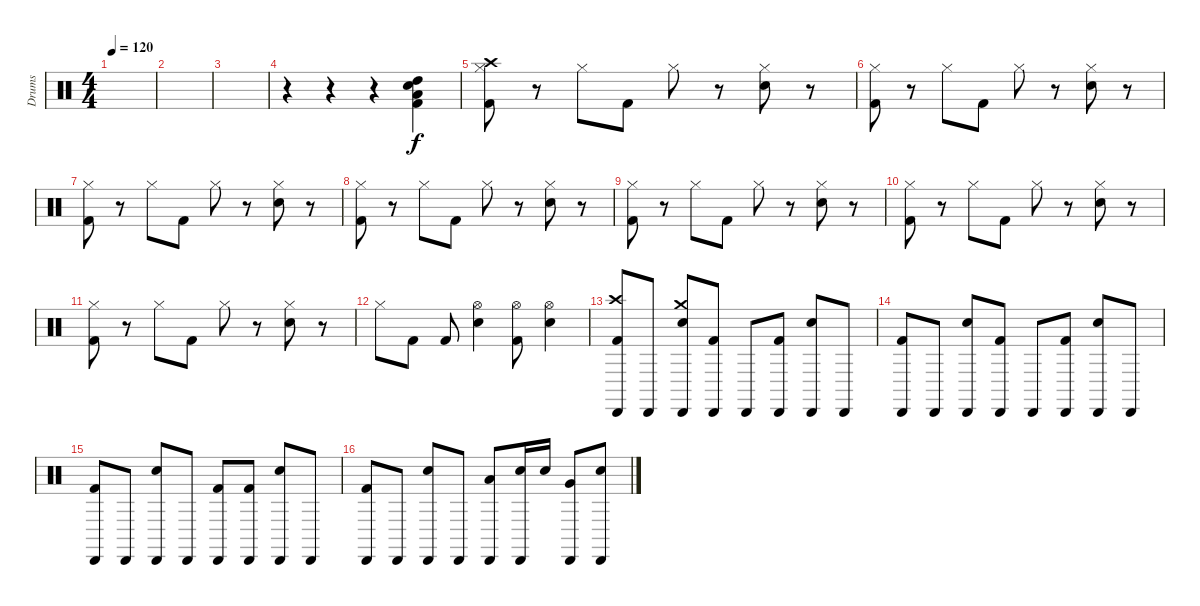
\track ("Drums" "Drums") {instrument percussion}
\staff {score}
\articulation defaults
\ts (4 4)
\tempo 120
\clef neutral
\ks c
|
|
|
r.4 r.4 r.4 ("High Tom (hit)" "Low Tom (hit)" "Kick (hit) 2" "Electric Snare (hit)").4{bd 120} |
("Hi-Hat (closed)" "Crash high (hit)" "Kick (hit) 2").8 r.8 "Hi-Hat (closed)".8 "Kick (hit) 2".8 "Hi-Hat (closed)".8 r.8 ("Hi-Hat (closed)" "Electric Snare (hit)").8 r.8 |
("Hi-Hat (closed)" "Kick (hit) 2").8 r.8 "Hi-Hat (closed)".8 "Kick (hit) 2".8 "Hi-Hat (closed)".8 r.8 ("Hi-Hat (closed)" "Electric Snare (hit)").8 r.8 |
("Hi-Hat (closed)" "Kick (hit) 2").8 r.8 "Hi-Hat (closed)".8 "Kick (hit) 2".8 "Hi-Hat (closed)".8 r.8 ("Hi-Hat (closed)" "Electric Snare (hit)").8 r.8 |
("Hi-Hat (closed)" "Kick (hit) 2").8 r.8 "Hi-Hat (closed)".8 "Kick (hit) 2".8 "Hi-Hat (closed)".8 r.8 ("Hi-Hat (closed)" "Electric Snare (hit)").8 r.8 |
("Hi-Hat (closed)" "Kick (hit) 2").8 r.8 "Hi-Hat (closed)".8 "Kick (hit) 2".8 "Hi-Hat (closed)".8 r.8 ("Hi-Hat (closed)" "Electric Snare (hit)").8 r.8 |
("Hi-Hat (closed)" "Kick (hit) 2").8 r.8 "Hi-Hat (closed)".8 "Kick (hit) 2".8 "Hi-Hat (closed)".8 r.8 ("Hi-Hat (closed)" "Electric Snare (hit)").8 r.8 |
("Hi-Hat (closed)" "Kick (hit) 2").8 r.8 "Hi-Hat (closed)".8 "Kick (hit) 2".8 "Hi-Hat (closed)".8 r.8 ("Hi-Hat (closed)" "Electric Snare (hit)").8 r.8 |
"Hi-Hat (closed)".8 "Kick (hit) 2".8 "Kick (hit) 2".8 ("Hi-Hat (open)" "Electric Snare (hit)").4 ("Hi-Hat (open)" "Kick (hit) 2").8 ("Hi-Hat (open)" "Electric Snare (hit)").4 |
("Cabasa (hit)" "Crash high (hit)" "Kick (hit) 2").8 "Cabasa (hit)".8 ("Cabasa (hit)" "Crash medium (hit)" "Electric Snare (hit)").8 ("Cabasa (hit)" "Kick (hit) 2").8 "Cabasa (hit)".8 ("Cabasa (hit)" "Kick (hit) 2").8 ("Cabasa (hit)" "Electric Snare (hit)").8 "Cabasa (hit)".8 |
("Cabasa (hit)" "Kick (hit) 2").8 "Cabasa (hit)".8 ("Cabasa (hit)" "Electric Snare (hit)").8 ("Cabasa (hit)" "Kick (hit) 2").8 "Cabasa (hit)".8 ("Cabasa (hit)" "Kick (hit) 2").8 ("Cabasa (hit)" "Electric Snare (hit)").8 "Cabasa (hit)".8 |
("Cabasa (hit)" "Kick (hit) 2").8 "Cabasa (hit)".8 ("Cabasa (hit)" "Electric Snare (hit)").8 "Cabasa (hit)".8 ("Cabasa (hit)" "Kick (hit) 2").8 ("Cabasa (hit)" "Kick (hit) 2").8 ("Cabasa (hit)" "Electric Snare (hit)").8 "Cabasa (hit)".8 |
("Cabasa (hit)" "Kick (hit) 2").8 "Cabasa (hit)".8 ("Cabasa (hit)" "Electric Snare (hit)").8 "Cabasa (hit)".8 ("Cabasa (hit)" "Low Tom (hit)").8 ("Cabasa (hit)" "Electric Snare (hit)").16 "Electric Snare (hit)".16 ("Cabasa (hit)" "Very Low Tom (hit)").8 ("Cabasa (hit)" "Electric Snare (hit)").8
